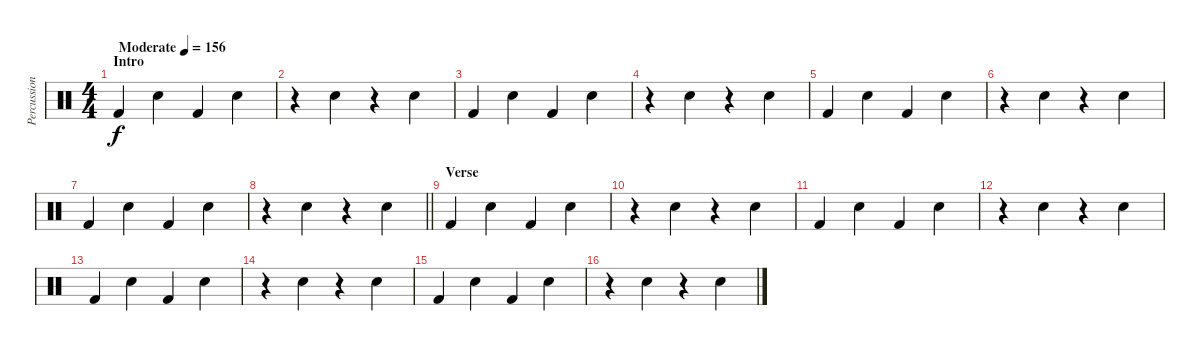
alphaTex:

\track ("Percussion" "Percussion") {instrument percussion}
\staff {score}
\articulation defaults
\ts (4 4)
\section ("" "Intro")
\tempo (156 "Moderate")
\clef neutral
\ks c "Kick (hit) 2".4{dy f} "Hand Clap (hit)".4 "Kick (hit) 2".4 "Hand Clap (hit)".4
|
r.4 "Hand Clap (hit)".4 r.4 "Hand Clap (hit)".4 |
"Kick (hit) 2".4 "Hand Clap (hit)".4 "Kick (hit) 2".4 "Hand Clap (hit)".4 |
r.4 "Hand Clap (hit)".4 r.4 "Hand Clap (hit)".4 |
"Kick (hit) 2".4 "Hand Clap (hit)".4 "Kick (hit) 2".4 "Hand Clap (hit)".4 |
r.4 "Hand Clap (hit)".4 r.4 "Hand Clap (hit)".4 |
"Kick (hit) 2".4 "Hand Clap (hit)".4 "Kick (hit) 2".4 "Hand Clap (hit)".4 |
\barLineRight lightlight
r.4 "Hand Clap (hit)".4 r.4 "Hand Clap (hit)".4 |
\section ("" "Verse")
"Kick (hit) 2".4 "Hand Clap (hit)".4 "Kick (hit) 2".4 "Hand Clap (hit)".4 |
r.4 "Hand Clap (hit)".4 r.4 "Hand Clap (hit)".4 |
"Kick (hit) 2".4 "Hand Clap (hit)".4 "Kick (hit) 2".4 "Hand Clap (hit)".4 |
r.4 "Hand Clap (hit)".4 r.4 "Hand Clap (hit)".4 |
"Kick (hit) 2".4 "Hand Clap (hit)".4 "Kick (hit) 2".4 "Hand Clap (hit)".4 |
r.4 "Hand Clap (hit)".4 r.4 "Hand Clap (hit)".4 |
"Kick (hit) 2".4 "Hand Clap (hit)".4 "Kick (hit) 2".4 "Hand Clap (hit)".4 |
r.4 "Hand Clap (hit)".4 r.4 "Hand Clap (hit)".4
